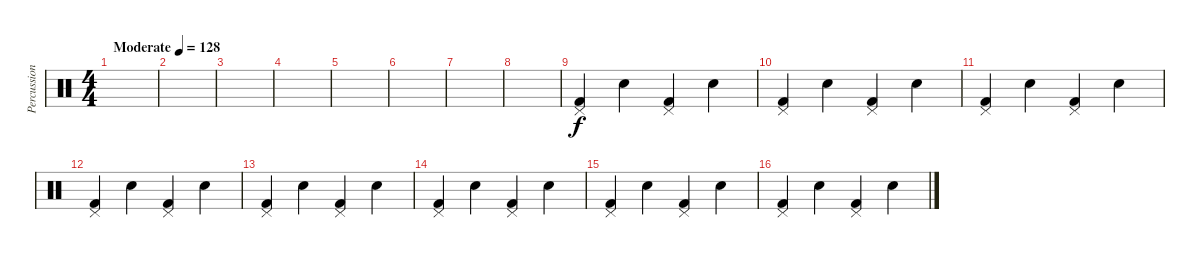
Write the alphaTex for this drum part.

\track ("Percussion" "Percussion") {instrument percussion}
\staff {score}
\articulation defaults
\ts (4 4)
\tempo (128 "Moderate")
\clef neutral
\ks c
|
|
|
|
|
|
|
|
("Kick (hit) 2" "Pedal Hi-Hat (hit)").4 "Snare (hit) 2".4 ("Pedal Hi-Hat (hit)" "Kick (hit) 2").4 "Snare (hit) 2".4 |
("Kick (hit) 2" "Pedal Hi-Hat (hit)").4 "Snare (hit) 2".4 ("Pedal Hi-Hat (hit)" "Kick (hit) 2").4 "Snare (hit) 2".4 |
("Kick (hit) 2" "Pedal Hi-Hat (hit)").4 "Snare (hit) 2".4 ("Pedal Hi-Hat (hit)" "Kick (hit) 2").4 "Snare (hit) 2".4 |
("Kick (hit) 2" "Pedal Hi-Hat (hit)").4 "Snare (hit) 2".4 ("Pedal Hi-Hat (hit)" "Kick (hit) 2").4 "Snare (hit) 2".4 |
("Kick (hit) 2" "Pedal Hi-Hat (hit)").4 "Snare (hit) 2".4 ("Pedal Hi-Hat (hit)" "Kick (hit) 2").4 "Snare (hit) 2".4 |
("Kick (hit) 2" "Pedal Hi-Hat (hit)").4 "Snare (hit) 2".4 ("Pedal Hi-Hat (hit)" "Kick (hit) 2").4 "Snare (hit) 2".4 |
("Kick (hit) 2" "Pedal Hi-Hat (hit)").4 "Snare (hit) 2".4 ("Pedal Hi-Hat (hit)" "Kick (hit) 2").4 "Snare (hit) 2".4 |
("Kick (hit) 2" "Pedal Hi-Hat (hit)").4 "Snare (hit) 2".4 ("Pedal Hi-Hat (hit)" "Kick (hit) 2").4 "Snare (hit) 2".4
